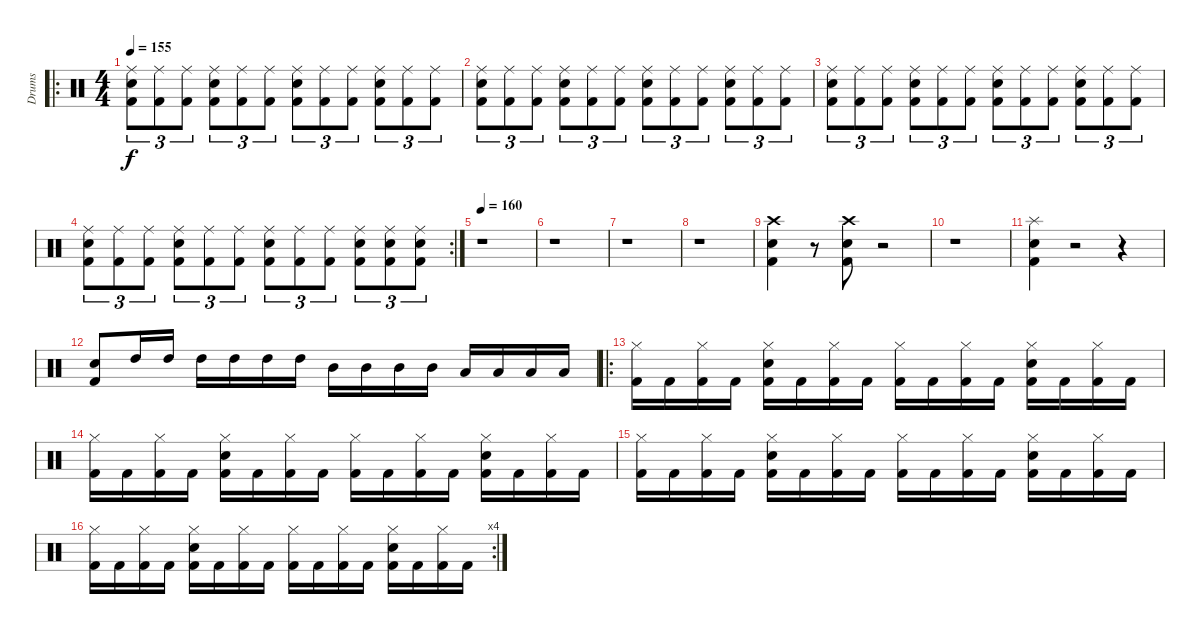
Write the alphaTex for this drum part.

\track ("Drums" "Drums") {instrument percussion}
\staff {score}
\articulation defaults
\ro
\ts (4 4)
\tempo 155
\clef neutral
\ks c
("Kick (hit) 2" "Snare (hit) 2" "Ride (middle)").8{tu (3 2) dy f} ("Kick (hit) 2" "Ride (middle)").8{tu (3 2)} ("Kick (hit) 2" "Ride (middle)").8{tu (3 2)} ("Kick (hit) 2" "Snare (hit) 2" "Ride (middle)").8{tu (3 2)} ("Kick (hit) 2" "Ride (middle)").8{tu (3 2)} ("Kick (hit) 2" "Ride (middle)").8{tu (3 2)} ("Kick (hit) 2" "Snare (hit) 2" "Ride (middle)").8{tu (3 2)} ("Kick (hit) 2" "Ride (middle)").8{tu (3 2)} ("Kick (hit) 2" "Ride (middle)").8{tu (3 2)} ("Kick (hit) 2" "Snare (hit) 2" "Ride (middle)").8{tu (3 2)} ("Kick (hit) 2" "Ride (middle)").8{tu (3 2)} ("Kick (hit) 2" "Ride (middle)").8{tu (3 2)} |
("Kick (hit) 2" "Snare (hit) 2" "Ride (middle)").8{tu (3 2)} ("Kick (hit) 2" "Ride (middle)").8{tu (3 2)} ("Kick (hit) 2" "Ride (middle)").8{tu (3 2)} ("Kick (hit) 2" "Snare (hit) 2" "Ride (middle)").8{tu (3 2)} ("Kick (hit) 2" "Ride (middle)").8{tu (3 2)} ("Kick (hit) 2" "Ride (middle)").8{tu (3 2)} ("Kick (hit) 2" "Snare (hit) 2" "Ride (middle)").8{tu (3 2)} ("Kick (hit) 2" "Ride (middle)").8{tu (3 2)} ("Kick (hit) 2" "Ride (middle)").8{tu (3 2)} ("Kick (hit) 2" "Snare (hit) 2" "Ride (middle)").8{tu (3 2)} ("Kick (hit) 2" "Ride (middle)").8{tu (3 2)} ("Kick (hit) 2" "Ride (middle)").8{tu (3 2)} |
("Kick (hit) 2" "Snare (hit) 2" "Ride (middle)").8{tu (3 2)} ("Kick (hit) 2" "Ride (middle)").8{tu (3 2)} ("Kick (hit) 2" "Ride (middle)").8{tu (3 2)} ("Kick (hit) 2" "Snare (hit) 2" "Ride (middle)").8{tu (3 2)} ("Kick (hit) 2" "Ride (middle)").8{tu (3 2)} ("Kick (hit) 2" "Ride (middle)").8{tu (3 2)} ("Kick (hit) 2" "Snare (hit) 2" "Ride (middle)").8{tu (3 2)} ("Kick (hit) 2" "Ride (middle)").8{tu (3 2)} ("Kick (hit) 2" "Ride (middle)").8{tu (3 2)} ("Kick (hit) 2" "Snare (hit) 2" "Ride (middle)").8{tu (3 2)} ("Kick (hit) 2" "Ride (middle)").8{tu (3 2)} ("Kick (hit) 2" "Ride (middle)").8{tu (3 2)} |
\rc 2
("Kick (hit) 2" "Snare (hit) 2" "Ride (middle)").8{tu (3 2)} ("Kick (hit) 2" "Ride (middle)").8{tu (3 2)} ("Kick (hit) 2" "Ride (middle)").8{tu (3 2)} ("Kick (hit) 2" "Snare (hit) 2" "Ride (middle)").8{tu (3 2)} ("Kick (hit) 2" "Ride (middle)").8{tu (3 2)} ("Kick (hit) 2" "Ride (middle)").8{tu (3 2)} ("Kick (hit) 2" "Snare (hit) 2" "Ride (middle)").8{tu (3 2)} ("Kick (hit) 2" "Ride (middle)").8{tu (3 2)} ("Kick (hit) 2" "Ride (middle)").8{tu (3 2)} ("Kick (hit) 2" "Snare (hit) 2" "Ride (middle)").8{tu (3 2)} ("Kick (hit) 2" "Snare (hit) 2" "Ride (middle)").8{tu (3 2)} ("Kick (hit) 2" "Snare (hit) 2" "Ride (middle)").8{tu (3 2)} |
\tempo 160
r.1 |
r.1 |
r.1 |
r.1 |
("Kick (hit) 2" "Snare (hit) 2" "Crash high (hit)").4 r.8 ("Kick (hit) 2" "Snare (hit) 2" "Crash high (hit)").8 r.2 |
r.1 |
("Kick (hit) 2" "Snare (hit) 2" "Splash (hit)").4 r.2 r.4 |
("Kick (hit) 2" "Snare (hit) 2").8 "High Tom (hit)".16 "High Tom (hit)".16 "High Tom (hit)".16 "High Tom (hit)".16 "High Tom (hit)".16 "High Tom (hit)".16 "Mid Tom (hit)".16 "Mid Tom (hit)".16 "Mid Tom (hit)".16 "Mid Tom (hit)".16 "Low Tom (hit)".16 "Low Tom (hit)".16 "Low Tom (hit)".16 "Low Tom (hit)".16 |
\ro
("Kick (hit) 2" "Hi-Hat (closed)").16 "Kick (hit) 2".16 ("Kick (hit) 2" "Hi-Hat (closed)").16 "Kick (hit) 2".16 ("Kick (hit) 2" "Snare (hit) 2" "Hi-Hat (closed)").16 "Kick (hit) 2".16 ("Kick (hit) 2" "Hi-Hat (closed)").16 "Kick (hit) 2".16 ("Kick (hit) 2" "Hi-Hat (closed)").16 "Kick (hit) 2".16 ("Kick (hit) 2" "Hi-Hat (closed)").16 "Kick (hit) 2".16 ("Kick (hit) 2" "Snare (hit) 2" "Hi-Hat (closed)").16 "Kick (hit) 2".16 ("Kick (hit) 2" "Hi-Hat (closed)").16 "Kick (hit) 2".16 |
("Kick (hit) 2" "Hi-Hat (closed)").16 "Kick (hit) 2".16 ("Kick (hit) 2" "Hi-Hat (closed)").16 "Kick (hit) 2".16 ("Kick (hit) 2" "Snare (hit) 2" "Hi-Hat (closed)").16 "Kick (hit) 2".16 ("Kick (hit) 2" "Hi-Hat (closed)").16 "Kick (hit) 2".16 ("Kick (hit) 2" "Hi-Hat (closed)").16 "Kick (hit) 2".16 ("Kick (hit) 2" "Hi-Hat (closed)").16 "Kick (hit) 2".16 ("Kick (hit) 2" "Snare (hit) 2" "Hi-Hat (closed)").16 "Kick (hit) 2".16 ("Kick (hit) 2" "Hi-Hat (closed)").16 "Kick (hit) 2".16 |
("Kick (hit) 2" "Hi-Hat (closed)").16 "Kick (hit) 2".16 ("Kick (hit) 2" "Hi-Hat (closed)").16 "Kick (hit) 2".16 ("Kick (hit) 2" "Snare (hit) 2" "Hi-Hat (closed)").16 "Kick (hit) 2".16 ("Kick (hit) 2" "Hi-Hat (closed)").16 "Kick (hit) 2".16 ("Kick (hit) 2" "Hi-Hat (closed)").16 "Kick (hit) 2".16 ("Kick (hit) 2" "Hi-Hat (closed)").16 "Kick (hit) 2".16 ("Kick (hit) 2" "Snare (hit) 2" "Hi-Hat (closed)").16 "Kick (hit) 2".16 ("Kick (hit) 2" "Hi-Hat (closed)").16 "Kick (hit) 2".16 |
\rc 4
("Kick (hit) 2" "Hi-Hat (closed)").16 "Kick (hit) 2".16 ("Kick (hit) 2" "Hi-Hat (closed)").16 "Kick (hit) 2".16 ("Kick (hit) 2" "Snare (hit) 2" "Hi-Hat (closed)").16 "Kick (hit) 2".16 ("Kick (hit) 2" "Hi-Hat (closed)").16 "Kick (hit) 2".16 ("Kick (hit) 2" "Hi-Hat (closed)").16 "Kick (hit) 2".16 ("Kick (hit) 2" "Hi-Hat (closed)").16 "Kick (hit) 2".16 ("Kick (hit) 2" "Snare (hit) 2" "Hi-Hat (closed)").16 "Kick (hit) 2".16 ("Kick (hit) 2" "Hi-Hat (closed)").16 "Kick (hit) 2".16
